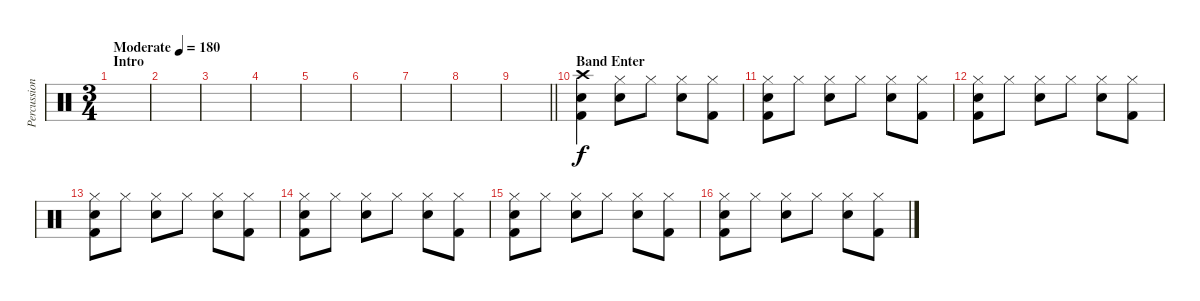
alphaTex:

\track ("Percussion" "Percussion") {instrument percussion}
\staff {score}
\articulation defaults
\ts (3 4)
\section ("" "Intro")
\tempo (180 "Moderate")
\clef neutral
\ks c
|
|
|
|
|
|
|
|
\barLineRight lightlight
|
\section ("" "Band Enter")
("Crash high (hit)" "Electric Snare (hit)" "Kick (hit) 2").4 ("Hi-Hat (closed)" "Electric Snare (hit)").8 "Hi-Hat (closed)".8 ("Hi-Hat (closed)" "Electric Snare (hit)").8 ("Hi-Hat (closed)" "Kick (hit) 2").8 |
("Hi-Hat (closed)" "Electric Snare (hit)" "Kick (hit) 2").8 "Hi-Hat (closed)".8 ("Hi-Hat (closed)" "Electric Snare (hit)").8 "Hi-Hat (closed)".8 ("Hi-Hat (closed)" "Electric Snare (hit)").8 ("Hi-Hat (closed)" "Kick (hit) 2").8 |
("Hi-Hat (closed)" "Electric Snare (hit)" "Kick (hit) 2").8 "Hi-Hat (closed)".8 ("Hi-Hat (closed)" "Electric Snare (hit)").8 "Hi-Hat (closed)".8 ("Hi-Hat (closed)" "Electric Snare (hit)").8 ("Hi-Hat (closed)" "Kick (hit) 2").8 |
("Hi-Hat (closed)" "Electric Snare (hit)" "Kick (hit) 2").8 "Hi-Hat (closed)".8 ("Hi-Hat (closed)" "Electric Snare (hit)").8 "Hi-Hat (closed)".8 ("Hi-Hat (closed)" "Electric Snare (hit)").8 ("Hi-Hat (closed)" "Kick (hit) 2").8 |
("Hi-Hat (closed)" "Electric Snare (hit)" "Kick (hit) 2").8 "Hi-Hat (closed)".8 ("Hi-Hat (closed)" "Electric Snare (hit)").8 "Hi-Hat (closed)".8 ("Hi-Hat (closed)" "Electric Snare (hit)").8 ("Hi-Hat (closed)" "Kick (hit) 2").8 |
("Hi-Hat (closed)" "Electric Snare (hit)" "Kick (hit) 2").8 "Hi-Hat (closed)".8 ("Hi-Hat (closed)" "Electric Snare (hit)").8 "Hi-Hat (closed)".8 ("Hi-Hat (closed)" "Electric Snare (hit)").8 ("Hi-Hat (closed)" "Kick (hit) 2").8 |
("Hi-Hat (closed)" "Electric Snare (hit)" "Kick (hit) 2").8 "Hi-Hat (closed)".8 ("Hi-Hat (closed)" "Electric Snare (hit)").8 "Hi-Hat (closed)".8 ("Hi-Hat (closed)" "Electric Snare (hit)").8 ("Hi-Hat (closed)" "Kick (hit) 2").8
